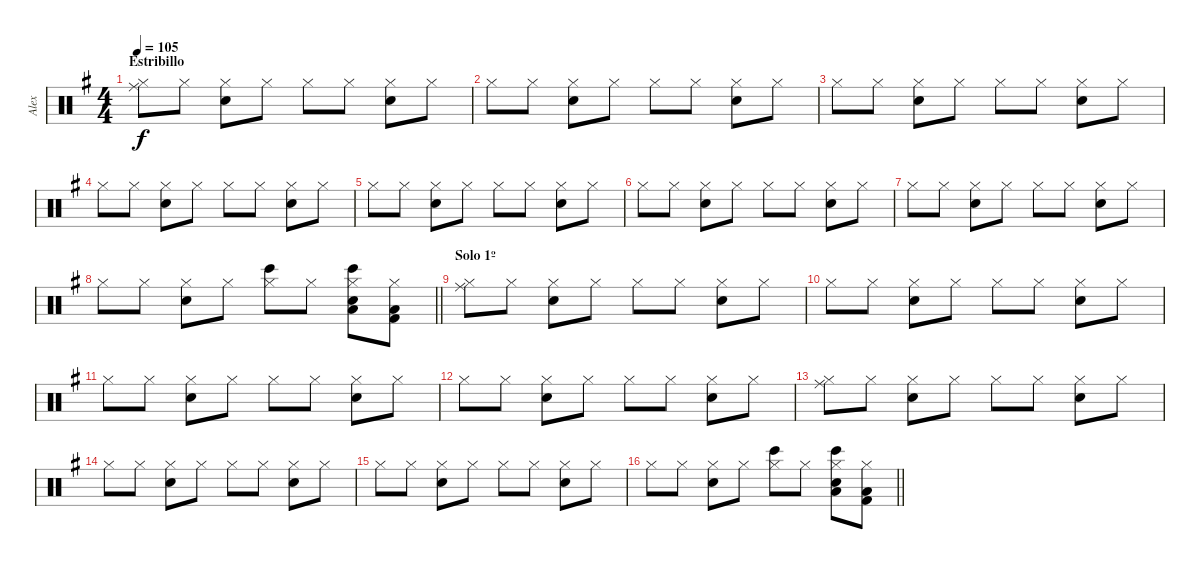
\track ("Alex" "Alex") {instrument percussion}
\staff {score}
\articulation defaults
\ts (4 4)
\section ("" "Estribillo")
\tempo 105
\clef neutral
\ks g
("Hi-Hat (closed)" "Ride (middle)").8{dy f} "Hi-Hat (closed)".8 ("Hi-Hat (closed)" "Snare (hit) 2").8 "Hi-Hat (closed)".8 "Hi-Hat (closed)".8 "Hi-Hat (closed)".8 ("Hi-Hat (closed)" "Snare (hit) 2").8 "Hi-Hat (closed)".8 |
"Hi-Hat (closed)".8 "Hi-Hat (closed)".8 ("Hi-Hat (closed)" "Snare (hit) 2").8 "Hi-Hat (closed)".8 "Hi-Hat (closed)".8 "Hi-Hat (closed)".8 ("Hi-Hat (closed)" "Snare (hit) 2").8 "Hi-Hat (closed)".8 |
"Hi-Hat (closed)".8 "Hi-Hat (closed)".8 ("Hi-Hat (closed)" "Snare (hit) 2").8 "Hi-Hat (closed)".8 "Hi-Hat (closed)".8 "Hi-Hat (closed)".8 ("Hi-Hat (closed)" "Snare (hit) 2").8 "Hi-Hat (closed)".8 |
"Hi-Hat (closed)".8 "Hi-Hat (closed)".8 ("Hi-Hat (closed)" "Snare (hit) 2").8 "Hi-Hat (closed)".8 "Hi-Hat (closed)".8 "Hi-Hat (closed)".8 ("Hi-Hat (closed)" "Snare (hit) 2").8 "Hi-Hat (closed)".8 |
"Hi-Hat (closed)".8 "Hi-Hat (closed)".8 ("Hi-Hat (closed)" "Snare (hit) 2").8 "Hi-Hat (closed)".8 "Hi-Hat (closed)".8 "Hi-Hat (closed)".8 ("Hi-Hat (closed)" "Snare (hit) 2").8 "Hi-Hat (closed)".8 |
"Hi-Hat (closed)".8 "Hi-Hat (closed)".8 ("Hi-Hat (closed)" "Snare (hit) 2").8 "Hi-Hat (closed)".8 "Hi-Hat (closed)".8 "Hi-Hat (closed)".8 ("Hi-Hat (closed)" "Snare (hit) 2").8 "Hi-Hat (closed)".8 |
"Hi-Hat (closed)".8 "Hi-Hat (closed)".8 ("Hi-Hat (closed)" "Snare (hit) 2").8 "Hi-Hat (closed)".8 "Hi-Hat (closed)".8 "Hi-Hat (closed)".8 ("Hi-Hat (closed)" "Snare (hit) 2").8 "Hi-Hat (closed)".8 |
\barLineRight lightlight "Hi-Hat (closed)".8 "Hi-Hat (closed)".8
("Hi-Hat (closed)" "Snare (hit) 2").8 "Hi-Hat (closed)".8 ("Hi-Hat (closed)" "Bongo High (hit)").8 "Hi-Hat (closed)".8 ("Hi-Hat (closed)" "Snare (hit) 2" "Bongo High (hit)" "Low Floor Tom (hit)").8 ("Hi-Hat (closed)" "Kick (hit) 2" "Low Floor Tom (hit)").8 |
\section ("" "Solo 1º")
("Hi-Hat (closed)" "Ride (middle)").8 "Hi-Hat (closed)".8 ("Hi-Hat (closed)" "Snare (hit) 2").8 "Hi-Hat (closed)".8 "Hi-Hat (closed)".8 "Hi-Hat (closed)".8 ("Hi-Hat (closed)" "Snare (hit) 2").8 "Hi-Hat (closed)".8 |
"Hi-Hat (closed)".8 "Hi-Hat (closed)".8 ("Hi-Hat (closed)" "Snare (hit) 2").8 "Hi-Hat (closed)".8 "Hi-Hat (closed)".8 "Hi-Hat (closed)".8 ("Hi-Hat (closed)" "Snare (hit) 2").8 "Hi-Hat (closed)".8 |
"Hi-Hat (closed)".8 "Hi-Hat (closed)".8 ("Hi-Hat (closed)" "Snare (hit) 2").8 "Hi-Hat (closed)".8 "Hi-Hat (closed)".8 "Hi-Hat (closed)".8 ("Hi-Hat (closed)" "Snare (hit) 2").8 "Hi-Hat (closed)".8 |
"Hi-Hat (closed)".8 "Hi-Hat (closed)".8 ("Hi-Hat (closed)" "Snare (hit) 2").8 "Hi-Hat (closed)".8 "Hi-Hat (closed)".8 "Hi-Hat (closed)".8 ("Hi-Hat (closed)" "Snare (hit) 2").8 "Hi-Hat (closed)".8 |
("Hi-Hat (closed)" "Ride (middle)").8 "Hi-Hat (closed)".8 ("Hi-Hat (closed)" "Snare (hit) 2").8 "Hi-Hat (closed)".8 "Hi-Hat (closed)".8 "Hi-Hat (closed)".8 ("Hi-Hat (closed)" "Snare (hit) 2").8 "Hi-Hat (closed)".8 |
"Hi-Hat (closed)".8 "Hi-Hat (closed)".8 ("Hi-Hat (closed)" "Snare (hit) 2").8 "Hi-Hat (closed)".8 "Hi-Hat (closed)".8 "Hi-Hat (closed)".8 ("Hi-Hat (closed)" "Snare (hit) 2").8 "Hi-Hat (closed)".8 |
"Hi-Hat (closed)".8 "Hi-Hat (closed)".8 ("Hi-Hat (closed)" "Snare (hit) 2").8 "Hi-Hat (closed)".8 "Hi-Hat (closed)".8 "Hi-Hat (closed)".8 ("Hi-Hat (closed)" "Snare (hit) 2").8 "Hi-Hat (closed)".8 |
\barLineRight lightlight "Hi-Hat (closed)".8 "Hi-Hat (closed)".8
("Hi-Hat (closed)" "Snare (hit) 2").8 "Hi-Hat (closed)".8 ("Hi-Hat (closed)" "Bongo High (hit)").8 "Hi-Hat (closed)".8 ("Hi-Hat (closed)" "Snare (hit) 2" "Bongo High (hit)" "Low Floor Tom (hit)").8 ("Hi-Hat (closed)" "Kick (hit) 2" "Low Floor Tom (hit)").8
